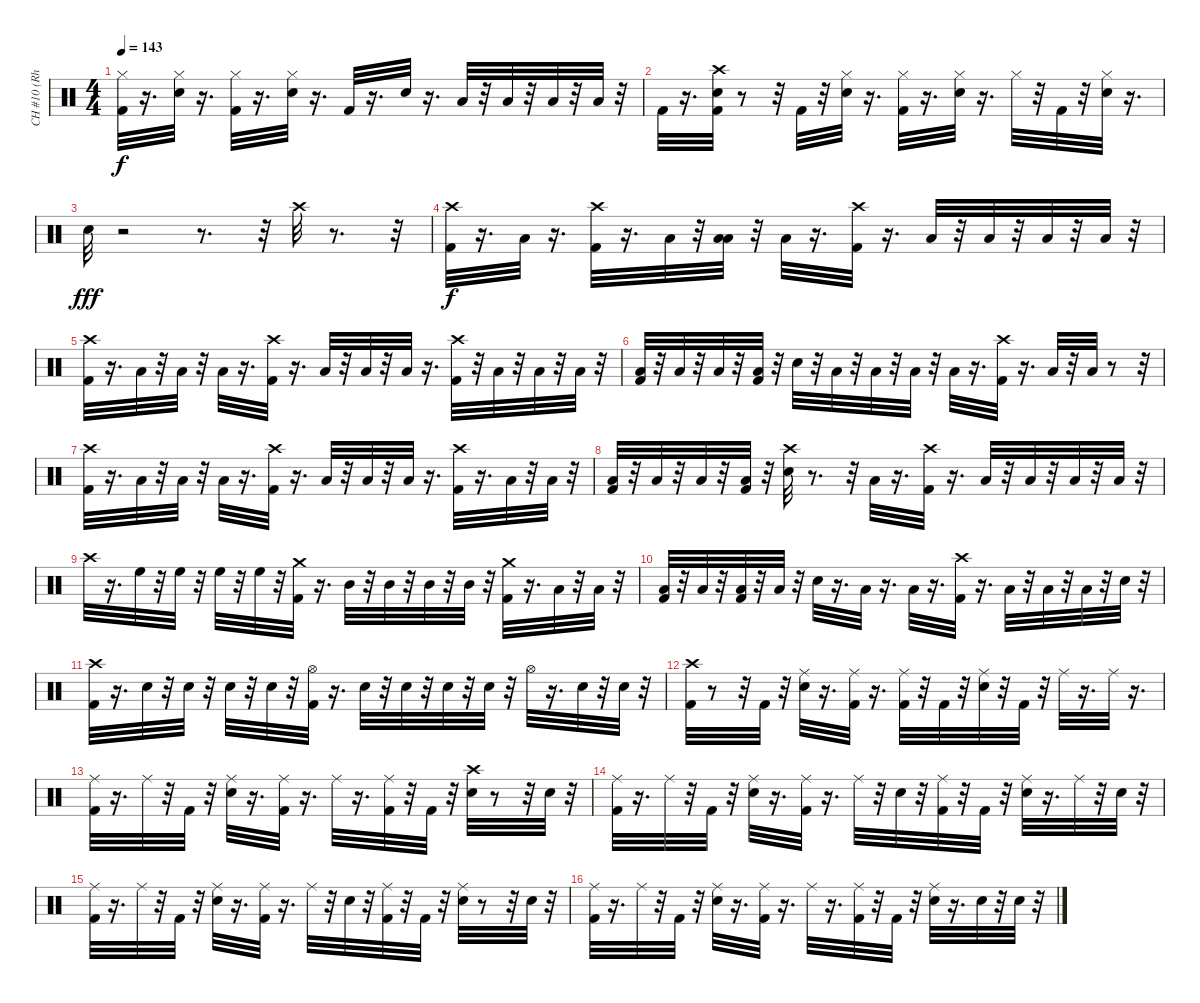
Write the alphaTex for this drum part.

\track ("CH #10 (Rhythm channel)" "CH #10 (Rh") {instrument percussion}
\staff {score}
\articulation defaults
\ts (4 4)
\tempo 143
\clef neutral
\ks c
("Kick (hit) 2" "Hi-Hat (closed)").32{dy f} r.16{d} ("Electric Snare (hit)" "Hi-Hat (closed)").32 r.16{d} ("Kick (hit) 2" "Hi-Hat (closed)").32 r.16{d} ("Electric Snare (hit)" "Hi-Hat (closed)").32 r.16{d} "Kick (hit) 2".32 r.16{d} "Electric Snare (hit)".32 r.16{d} "Low Tom (hit)".32 r.32 "Low Tom (hit)".32 r.32 "Low Floor Tom (hit)".32 r.32 "Low Floor Tom (hit)".32 r.32 |
"Kick (hit) 2".32 r.16{d} ("Kick (hit) 2" "Electric Snare (hit)" "Crash high (hit)").32 r.8 r.32 "Kick (hit) 2".32 r.32 ("Electric Snare (hit)" "Hi-Hat (closed)").32 r.16{d} ("Kick (hit) 2" "Hi-Hat (closed)").32 r.16{d} ("Electric Snare (hit)" "Hi-Hat (closed)").32 r.16{d} "Hi-Hat (closed)".32 r.32 "Kick (hit) 2".32 r.32 ("Electric Snare (hit)" "Hi-Hat (closed)").32 r.16{d} |
"Electric Snare (hit)".32{dy fff} r.2 r.8{d} r.32 "Crash high (hit)".32 r.8{d} r.32 |
("Kick (hit) 2" "Crash high (hit)").32{dy f} r.16{d} "Low Floor Tom (hit)".32 r.16{d} ("Kick (hit) 2" "Crash high (hit)").32 r.16{d} "Low Floor Tom (hit)".32 r.32 ("Low Floor Tom (hit)" "Low Floor Tom (hit)").32 r.32 "Low Floor Tom (hit)".32 r.16{d} ("Kick (hit) 2" "Crash high (hit)").32 r.16{d} "Low Floor Tom (hit)".32 r.32 "Low Floor Tom (hit)".32 r.32 "Low Floor Tom (hit)".32 r.32 "Low Floor Tom (hit)".32 r.32 |
("Kick (hit) 2" "Crash high (hit)").32 r.16{d} "Low Floor Tom (hit)".32 r.32 "Low Floor Tom (hit)".32 r.32 "Low Floor Tom (hit)".32 r.16{d} ("Kick (hit) 2" "Crash high (hit)").32 r.16{d} "Low Floor Tom (hit)".32 r.32 "Low Floor Tom (hit)".32 r.32 "Low Floor Tom (hit)".32 r.16{d} ("Kick (hit) 2" "Crash high (hit)").32 r.32 "Low Floor Tom (hit)".32 r.32 "Low Floor Tom (hit)".32 r.32 "Low Floor Tom (hit)".32 r.32 |
("Low Floor Tom (hit)" "Kick (hit) 2").32 r.32 "Low Floor Tom (hit)".32 r.32 "Low Floor Tom (hit)".32 r.32 ("Low Floor Tom (hit)" "Kick (hit) 2").32 r.32 "Electric Snare (hit)".32 r.32 "Low Floor Tom (hit)".32 r.32 "Low Floor Tom (hit)".32 r.32 "Low Floor Tom (hit)".32 r.32 "Low Floor Tom (hit)".32 r.16{d} ("Crash high (hit)" "Kick (hit) 2").32 r.16{d} "Low Floor Tom (hit)".32 r.32 "Low Floor Tom (hit)".32 r.8 r.32 |
("Kick (hit) 2" "Crash high (hit)").32 r.16{d} "Low Floor Tom (hit)".32 r.32 "Low Floor Tom (hit)".32 r.32 "Low Floor Tom (hit)".32 r.16{d} ("Kick (hit) 2" "Crash high (hit)").32 r.16{d} "Low Floor Tom (hit)".32 r.32 "Low Floor Tom (hit)".32 r.32 "Low Floor Tom (hit)".32 r.16{d} ("Kick (hit) 2" "Crash high (hit)").32 r.16{d} "Low Floor Tom (hit)".32 r.32 "Low Floor Tom (hit)".32 r.32 |
("Low Floor Tom (hit)" "Kick (hit) 2").32 r.32 "Low Floor Tom (hit)".32 r.32 "Low Floor Tom (hit)".32 r.32 ("Low Floor Tom (hit)" "Kick (hit) 2").32 r.32 ("Electric Snare (hit)" "Crash high (hit)").32 r.8{d} r.32 "Low Floor Tom (hit)".32 r.16{d} ("Kick (hit) 2" "Crash high (hit)").32 r.16{d} "Low Floor Tom (hit)".32 r.32 "Low Floor Tom (hit)".32 r.32 "Low Floor Tom (hit)".32 r.32 "Low Floor Tom (hit)".32 r.32 |
"Crash high (hit)".32 r.16{d} "High Floor Tom (hit)".32 r.32 "High Floor Tom (hit)".32 r.32 "High Floor Tom (hit)".32 r.32 "High Floor Tom (hit)".32 r.32 ("Crash medium (hit)" "Kick (hit) 2").32 r.16{d} "Mid Tom (hit)".32 r.32 "Mid Tom (hit)".32 r.32 "Mid Tom (hit)".32 r.32 "Mid Tom (hit)".32 r.32 ("Crash medium (hit)" "Kick (hit) 2").32 r.16{d} "Low Tom (hit)".32 r.32 "Low Tom (hit)".32 r.32 |
("Kick (hit) 2" "Low Floor Tom (hit)").32 r.32 "Low Floor Tom (hit)".32 r.32 ("Kick (hit) 2" "Low Floor Tom (hit)").32 r.32 "Low Floor Tom (hit)".32 r.32 "Electric Snare (hit)".32 r.16{d} "Low Floor Tom (hit)".32 r.16{d} "Low Floor Tom (hit)".32 r.16{d} ("Crash high (hit)" "Kick (hit) 2").32 r.16{d} "Low Floor Tom (hit)".32 r.32 "Low Floor Tom (hit)".32 r.32 "Low Floor Tom (hit)".32 r.32 "Electric Snare (hit)".32 r.32 |
("Kick (hit) 2" "Crash high (hit)").32 r.16{d} "Electric Snare (hit)".32 r.32 "Electric Snare (hit)".32 r.32 "Electric Snare (hit)".32 r.32 "Electric Snare (hit)".32 r.32 ("Hi-Hat (open)" "Kick (hit) 2").32 r.16{d} "Electric Snare (hit)".32 r.32 "Electric Snare (hit)".32 r.32 "Electric Snare (hit)".32 r.32 "Electric Snare (hit)".32 r.32 "Hi-Hat (open)".32 r.16{d} "Electric Snare (hit)".32 r.32 "Electric Snare (hit)".32 r.32 |
("Kick (hit) 2" "Crash high (hit)").32 r.8 r.32 "Kick (hit) 2".32 r.32 ("Electric Snare (hit)" "Ride (middle)").32 r.16{d} ("Kick (hit) 2" "Ride (middle)").32 r.16{d} ("Kick (hit) 2" "Ride (middle)").32 r.32 "Kick (hit) 2".32 r.32 ("Electric Snare (hit)" "Ride (middle)").32 r.32 "Kick (hit) 2".32 r.32 "Ride (middle)".32 r.16{d} "Ride (middle)".32 r.16{d} |
("Ride (middle)" "Kick (hit) 2").32 r.16{d} "Ride (middle)".32 r.32 "Kick (hit) 2".32 r.32 ("Ride (middle)" "Electric Snare (hit)").32 r.16{d} ("Ride (middle)" "Kick (hit) 2").32 r.16{d} "Ride (middle)".32 r.16{d} ("Ride (middle)" "Kick (hit) 2").32 r.32 "Kick (hit) 2".32 r.32 ("Crash high (hit)" "Electric Snare (hit)").32 r.8 r.32 "Electric Snare (hit)".32 r.32 |
("Kick (hit) 2" "Ride (middle)").32 r.16{d} "Ride (middle)".32 r.32 "Kick (hit) 2".32 r.32 ("Ride (middle)" "Electric Snare (hit)").32 r.16{d} ("Ride (middle)" "Kick (hit) 2").32 r.16{d} "Ride (middle)".32 r.32 "Electric Snare (hit)".32 r.32 ("Ride (middle)" "Kick (hit) 2").32 r.32 "Kick (hit) 2".32 r.32 ("Ride (middle)" "Electric Snare (hit)").32 r.16{d} "Ride (middle)".32 r.32 "Electric Snare (hit)".32 r.32 |
("Kick (hit) 2" "Ride (middle)").32 r.16{d} "Ride (middle)".32 r.32 "Kick (hit) 2".32 r.32 ("Electric Snare (hit)" "Ride (middle)").32 r.16{d} ("Kick (hit) 2" "Ride (middle)").32 r.16{d} "Ride (middle)".32 r.32 "Electric Snare (hit)".32 r.32 ("Ride (middle)" "Kick (hit) 2").32 r.32 "Kick (hit) 2".32 r.32 ("Ride (middle)" "Electric Snare (hit)").32 r.8 r.32 "Electric Snare (hit)".32 r.32 |
("Kick (hit) 2" "Ride (middle)").32 r.16{d} "Ride (middle)".32 r.32 "Kick (hit) 2".32 r.32 ("Electric Snare (hit)" "Ride (middle)").32 r.16{d} ("Ride (middle)" "Kick (hit) 2").32 r.16{d} "Ride (middle)".32 r.16{d} ("Ride (middle)" "Kick (hit) 2").32 r.32 "Kick (hit) 2".32 r.32 ("Ride (middle)" "Electric Snare (hit)").32 r.16{d} "Electric Snare (hit)".32 r.32 "Electric Snare (hit)".32 r.32
